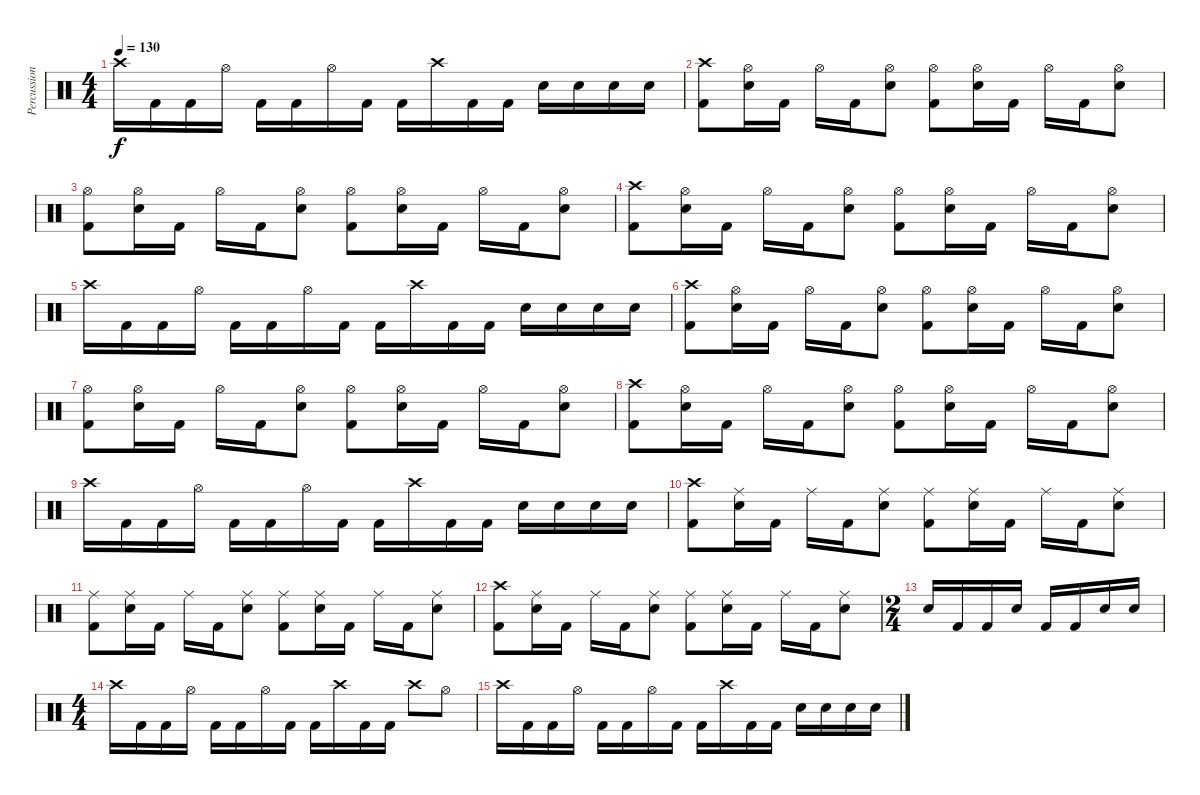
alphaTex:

\track ("Percussion" "Percussion") {instrument percussion}
\staff {score}
\articulation defaults
\ts (4 4)
\tempo 130
\clef neutral
\ks c "Crash high (hit)".16{dy f} "Kick (hit) 2".16 "Kick (hit) 2".16 "Hi-Hat (open)".16 "Kick (hit) 2".16 "Kick (hit) 2".16 "Hi-Hat (open)".16 "Kick (hit) 2".16 "Kick (hit) 2".16 "Crash high (hit)".16 "Kick (hit) 2".16 "Kick (hit) 2".16 "Snare (hit) 2".16 "Snare (hit) 2".16 "Snare (hit) 2".16 "Snare (hit) 2".16
|
("Crash high (hit)" "Kick (hit) 2").8 ("Hi-Hat (open)" "Snare (hit) 2").16 "Kick (hit) 2".16 "Hi-Hat (open)".16 "Kick (hit) 2".16 ("Hi-Hat (open)" "Snare (hit) 2").8 ("Hi-Hat (open)" "Kick (hit) 2").8 ("Hi-Hat (open)" "Snare (hit) 2").16 "Kick (hit) 2".16 "Hi-Hat (open)".16 "Kick (hit) 2".16 ("Hi-Hat (open)" "Snare (hit) 2").8 |
("Hi-Hat (open)" "Kick (hit) 2").8 ("Hi-Hat (open)" "Snare (hit) 2").16 "Kick (hit) 2".16 "Hi-Hat (open)".16 "Kick (hit) 2".16 ("Hi-Hat (open)" "Snare (hit) 2").8 ("Hi-Hat (open)" "Kick (hit) 2").8 ("Hi-Hat (open)" "Snare (hit) 2").16 "Kick (hit) 2".16 "Hi-Hat (open)".16 "Kick (hit) 2".16 ("Hi-Hat (open)" "Snare (hit) 2").8 |
("Crash high (hit)" "Kick (hit) 2").8 ("Hi-Hat (open)" "Snare (hit) 2").16 "Kick (hit) 2".16 "Hi-Hat (open)".16 "Kick (hit) 2".16 ("Hi-Hat (open)" "Snare (hit) 2").8 ("Hi-Hat (open)" "Kick (hit) 2").8 ("Hi-Hat (open)" "Snare (hit) 2").16 "Kick (hit) 2".16 "Hi-Hat (open)".16 "Kick (hit) 2".16 ("Hi-Hat (open)" "Snare (hit) 2").8 |
"Crash high (hit)".16 "Kick (hit) 2".16 "Kick (hit) 2".16 "Hi-Hat (open)".16 "Kick (hit) 2".16 "Kick (hit) 2".16 "Hi-Hat (open)".16 "Kick (hit) 2".16 "Kick (hit) 2".16 "Crash high (hit)".16 "Kick (hit) 2".16 "Kick (hit) 2".16 "Snare (hit) 2".16 "Snare (hit) 2".16 "Snare (hit) 2".16 "Snare (hit) 2".16 |
("Crash high (hit)" "Kick (hit) 2").8 ("Hi-Hat (open)" "Snare (hit) 2").16 "Kick (hit) 2".16 "Hi-Hat (open)".16 "Kick (hit) 2".16 ("Hi-Hat (open)" "Snare (hit) 2").8 ("Hi-Hat (open)" "Kick (hit) 2").8 ("Hi-Hat (open)" "Snare (hit) 2").16 "Kick (hit) 2".16 "Hi-Hat (open)".16 "Kick (hit) 2".16 ("Hi-Hat (open)" "Snare (hit) 2").8 |
("Hi-Hat (open)" "Kick (hit) 2").8 ("Hi-Hat (open)" "Snare (hit) 2").16 "Kick (hit) 2".16 "Hi-Hat (open)".16 "Kick (hit) 2".16 ("Hi-Hat (open)" "Snare (hit) 2").8 ("Hi-Hat (open)" "Kick (hit) 2").8 ("Hi-Hat (open)" "Snare (hit) 2").16 "Kick (hit) 2".16 "Hi-Hat (open)".16 "Kick (hit) 2".16 ("Hi-Hat (open)" "Snare (hit) 2").8 |
("Crash high (hit)" "Kick (hit) 2").8 ("Hi-Hat (open)" "Snare (hit) 2").16 "Kick (hit) 2".16 "Hi-Hat (open)".16 "Kick (hit) 2".16 ("Hi-Hat (open)" "Snare (hit) 2").8 ("Hi-Hat (open)" "Kick (hit) 2").8 ("Hi-Hat (open)" "Snare (hit) 2").16 "Kick (hit) 2".16 "Hi-Hat (open)".16 "Kick (hit) 2".16 ("Hi-Hat (open)" "Snare (hit) 2").8 |
"Crash high (hit)".16 "Kick (hit) 2".16 "Kick (hit) 2".16 "Hi-Hat (open)".16 "Kick (hit) 2".16 "Kick (hit) 2".16 "Hi-Hat (open)".16 "Kick (hit) 2".16 "Kick (hit) 2".16 "Crash high (hit)".16 "Kick (hit) 2".16 "Kick (hit) 2".16 "Snare (hit) 2".16 "Snare (hit) 2".16 "Snare (hit) 2".16 "Snare (hit) 2".16 |
("Crash high (hit)" "Kick (hit) 2").8 ("Ride (middle)" "Snare (hit) 2").16 "Kick (hit) 2".16 "Ride (middle)".16 "Kick (hit) 2".16 ("Ride (middle)" "Snare (hit) 2").8 ("Ride (middle)" "Kick (hit) 2").8 ("Ride (middle)" "Snare (hit) 2").16 "Kick (hit) 2".16 "Ride (middle)".16 "Kick (hit) 2".16 ("Ride (middle)" "Snare (hit) 2").8 |
("Ride (middle)" "Kick (hit) 2").8 ("Ride (middle)" "Snare (hit) 2").16 "Kick (hit) 2".16 "Ride (middle)".16 "Kick (hit) 2".16 ("Ride (middle)" "Snare (hit) 2").8 ("Ride (middle)" "Kick (hit) 2").8 ("Ride (middle)" "Snare (hit) 2").16 "Kick (hit) 2".16 "Ride (middle)".16 "Kick (hit) 2".16 ("Ride (middle)" "Snare (hit) 2").8 |
("Crash high (hit)" "Kick (hit) 2").8 ("Ride (middle)" "Snare (hit) 2").16 "Kick (hit) 2".16 "Ride (middle)".16 "Kick (hit) 2".16 ("Ride (middle)" "Snare (hit) 2").8 ("Ride (middle)" "Kick (hit) 2").8 ("Ride (middle)" "Snare (hit) 2").16 "Kick (hit) 2".16 "Ride (middle)".16 "Kick (hit) 2".16 ("Ride (middle)" "Snare (hit) 2").8 |
\ts (2 4)
"Snare (hit) 2".16 "Kick (hit) 2".16 "Kick (hit) 2".16 "Snare (hit) 2".16 "Kick (hit) 2".16 "Kick (hit) 2".16 "Snare (hit) 2".16 "Snare (hit) 2".16 |
\ts (4 4)
"Crash high (hit)".16 "Kick (hit) 2".16 "Kick (hit) 2".16 "Hi-Hat (open)".16 "Kick (hit) 2".16 "Kick (hit) 2".16 "Hi-Hat (open)".16 "Kick (hit) 2".16 "Kick (hit) 2".16 "Crash high (hit)".16 "Kick (hit) 2".16 "Kick (hit) 2".16 "Crash high (hit)".8 "Hi-Hat (open)".8 |
"Crash high (hit)".16 "Kick (hit) 2".16 "Kick (hit) 2".16 "Hi-Hat (open)".16 "Kick (hit) 2".16 "Kick (hit) 2".16 "Hi-Hat (open)".16 "Kick (hit) 2".16 "Kick (hit) 2".16 "Crash high (hit)".16 "Kick (hit) 2".16 "Kick (hit) 2".16 "Snare (hit) 2".16 "Snare (hit) 2".16 "Snare (hit) 2".16 "Snare (hit) 2".16
